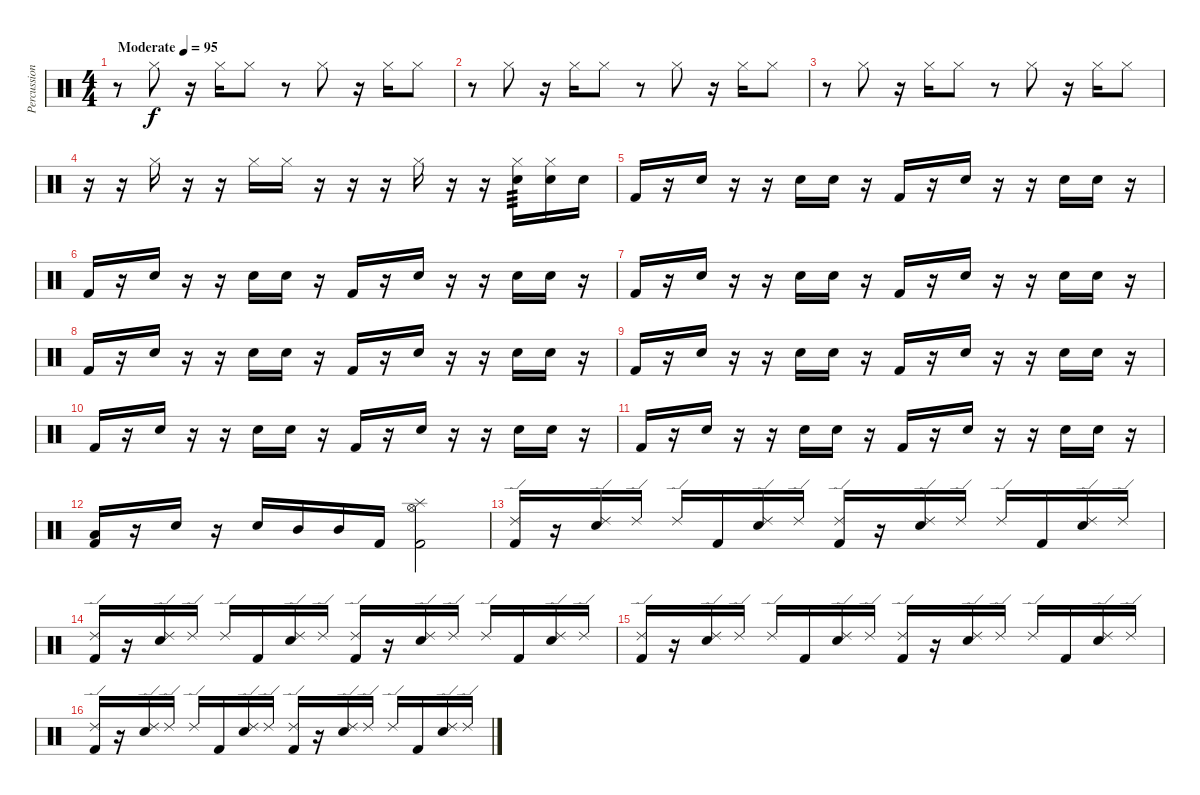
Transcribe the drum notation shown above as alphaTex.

\track ("Percussion" "Percussion") {instrument percussion}
\staff {score}
\articulation defaults
\ts (4 4)
\tempo (95 "Moderate")
\clef neutral
\ks c
r.8{dy f} "Hi-Hat (closed)".8 r.16 "Hi-Hat (closed)".16 "Hi-Hat (closed)".8 r.8 "Hi-Hat (closed)".8 r.16 "Hi-Hat (closed)".16 "Hi-Hat (closed)".8 |
r.8 "Hi-Hat (closed)".8 r.16 "Hi-Hat (closed)".16 "Hi-Hat (closed)".8 r.8 "Hi-Hat (closed)".8 r.16 "Hi-Hat (closed)".16 "Hi-Hat (closed)".8 |
r.8 "Hi-Hat (closed)".8 r.16 "Hi-Hat (closed)".16 "Hi-Hat (closed)".8 r.8 "Hi-Hat (closed)".8 r.16 "Hi-Hat (closed)".16 "Hi-Hat (closed)".8 |
r.16 r.16 "Hi-Hat (closed)".16 r.16 r.16 "Hi-Hat (closed)".16 "Hi-Hat (closed)".16 r.16 r.16 r.16 "Hi-Hat (closed)".16 r.16 r.16 ("Hi-Hat (closed)" "Electric Snare (hit)").16{tp 3} ("Hi-Hat (closed)" "Electric Snare (hit)").16 "Electric Snare (hit)".16 |
"Kick (hit) 2".16 r.16 "Electric Snare (hit)".16 r.16 r.16 "Electric Snare (hit)".16 "Electric Snare (hit)".16 r.16 "Kick (hit) 2".16 r.16 "Electric Snare (hit)".16 r.16 r.16 "Electric Snare (hit)".16 "Electric Snare (hit)".16 r.16 |
"Kick (hit) 2".16 r.16 "Electric Snare (hit)".16 r.16 r.16 "Electric Snare (hit)".16 "Electric Snare (hit)".16 r.16 "Kick (hit) 2".16 r.16 "Electric Snare (hit)".16 r.16 r.16 "Electric Snare (hit)".16 "Electric Snare (hit)".16 r.16 |
"Kick (hit) 2".16 r.16 "Electric Snare (hit)".16 r.16 r.16 "Electric Snare (hit)".16 "Electric Snare (hit)".16 r.16 "Kick (hit) 2".16 r.16 "Electric Snare (hit)".16 r.16 r.16 "Electric Snare (hit)".16 "Electric Snare (hit)".16 r.16 |
"Kick (hit) 2".16 r.16 "Electric Snare (hit)".16 r.16 r.16 "Electric Snare (hit)".16 "Electric Snare (hit)".16 r.16 "Kick (hit) 2".16 r.16 "Electric Snare (hit)".16 r.16 r.16 "Electric Snare (hit)".16 "Electric Snare (hit)".16 r.16 |
"Kick (hit) 2".16 r.16 "Electric Snare (hit)".16 r.16 r.16 "Electric Snare (hit)".16 "Electric Snare (hit)".16 r.16 "Kick (hit) 2".16 r.16 "Electric Snare (hit)".16 r.16 r.16 "Electric Snare (hit)".16 "Electric Snare (hit)".16 r.16 |
"Kick (hit) 2".16 r.16 "Electric Snare (hit)".16 r.16 r.16 "Electric Snare (hit)".16 "Electric Snare (hit)".16 r.16 "Kick (hit) 2".16 r.16 "Electric Snare (hit)".16 r.16 r.16 "Electric Snare (hit)".16 "Electric Snare (hit)".16 r.16 |
"Kick (hit) 2".16 r.16 "Electric Snare (hit)".16 r.16 r.16 "Electric Snare (hit)".16 "Electric Snare (hit)".16 r.16 "Kick (hit) 2".16 r.16 "Electric Snare (hit)".16 r.16 r.16 "Electric Snare (hit)".16 "Electric Snare (hit)".16 r.16 |
("Low Tom (hit)" "Kick (hit) 2").16 r.16 "Electric Snare (hit)".16 r.16 "Electric Snare (hit)".16 "Mid Tom (hit)".16 "Mid Tom (hit)".16 "Kick (hit) 2".16 ("Splash (hit)" "Hi-Hat (open)" "Kick (hit) 2").2 |
("Ride (edge) 2" "Kick (hit) 2").16 r.16 ("Ride (edge) 2" "Electric Snare (hit)").16 "Ride (edge) 2".16 "Ride (edge) 2".16 "Kick (hit) 2".16 ("Ride (edge) 2" "Electric Snare (hit)").16 "Ride (edge) 2".16 ("Ride (edge) 2" "Kick (hit) 2").16 r.16 ("Ride (edge) 2" "Electric Snare (hit)").16 "Ride (edge) 2".16 "Ride (edge) 2".16 "Kick (hit) 2".16 ("Ride (edge) 2" "Electric Snare (hit)").16 "Ride (edge) 2".16 |
("Ride (edge) 2" "Kick (hit) 2").16 r.16 ("Ride (edge) 2" "Electric Snare (hit)").16 "Ride (edge) 2".16 "Ride (edge) 2".16 "Kick (hit) 2".16 ("Ride (edge) 2" "Electric Snare (hit)").16 "Ride (edge) 2".16 ("Ride (edge) 2" "Kick (hit) 2").16 r.16 ("Ride (edge) 2" "Electric Snare (hit)").16 "Ride (edge) 2".16 "Ride (edge) 2".16 "Kick (hit) 2".16 ("Ride (edge) 2" "Electric Snare (hit)").16 "Ride (edge) 2".16 |
("Ride (edge) 2" "Kick (hit) 2").16 r.16 ("Ride (edge) 2" "Electric Snare (hit)").16 "Ride (edge) 2".16 "Ride (edge) 2".16 "Kick (hit) 2".16 ("Ride (edge) 2" "Electric Snare (hit)").16 "Ride (edge) 2".16 ("Ride (edge) 2" "Kick (hit) 2").16 r.16 ("Ride (edge) 2" "Electric Snare (hit)").16 "Ride (edge) 2".16 "Ride (edge) 2".16 "Kick (hit) 2".16 ("Ride (edge) 2" "Electric Snare (hit)").16 "Ride (edge) 2".16 |
("Ride (edge) 2" "Kick (hit) 2").16 r.16 ("Ride (edge) 2" "Electric Snare (hit)").16 "Ride (edge) 2".16 "Ride (edge) 2".16 "Kick (hit) 2".16 ("Ride (edge) 2" "Electric Snare (hit)").16 "Ride (edge) 2".16 ("Ride (edge) 2" "Kick (hit) 2").16 r.16 ("Ride (edge) 2" "Electric Snare (hit)").16 "Ride (edge) 2".16 "Ride (edge) 2".16 "Kick (hit) 2".16 ("Ride (edge) 2" "Electric Snare (hit)").16 "Ride (edge) 2".16
